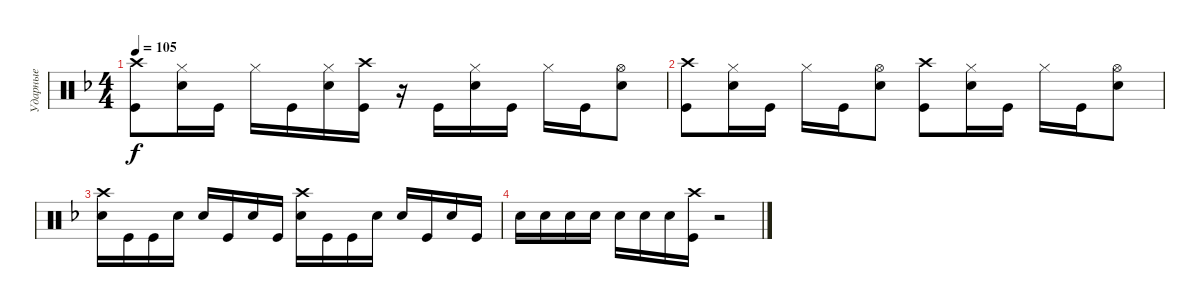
\track ("Ударные" "Ударные") {instrument percussion}
\staff {score}
\articulation defaults
\ts (4 4)
\tempo 105
\clef neutral
\ks dminor
("Kick (hit)" "Crash high (hit)").8{dy f} ("Snare (hit) 2" "Hi-Hat (closed)").16 "Kick (hit)".16 "Hi-Hat (closed)".16 "Kick (hit)".16 ("Snare (hit) 2" "Hi-Hat (closed)").16 ("Kick (hit)" "Crash high (hit)").16 r.16 "Kick (hit)".16 ("Snare (hit) 2" "Hi-Hat (closed)").16 "Kick (hit)".16 "Hi-Hat (closed)".16 "Kick (hit)".16 ("Snare (hit) 2" "Hi-Hat (open)").8 |
("Kick (hit)" "Crash high (hit)").8 ("Snare (hit) 2" "Hi-Hat (closed)").16 "Kick (hit)".16 "Hi-Hat (closed)".16 "Kick (hit)".16 ("Snare (hit) 2" "Hi-Hat (open)").8 ("Kick (hit)" "Crash high (hit)").8 ("Snare (hit) 2" "Hi-Hat (closed)").16 "Kick (hit)".16 "Hi-Hat (closed)".16 "Kick (hit)".16 ("Snare (hit) 2" "Hi-Hat (open)").8 |
("Crash high (hit)" "Snare (hit) 2").16 "Kick (hit)".16 "Kick (hit)".16 "Snare (hit) 2".16 "Snare (hit) 2".16 "Kick (hit)".16 "Snare (hit) 2".16 "Kick (hit)".16 ("Crash high (hit)" "Snare (hit) 2").16 "Kick (hit)".16 "Kick (hit)".16 "Snare (hit) 2".16 "Snare (hit) 2".16 "Kick (hit)".16 "Snare (hit) 2".16 "Kick (hit)".16 |
"Snare (hit) 2".16 "Snare (hit) 2".16 "Snare (hit) 2".16 "Snare (hit) 2".16 "Snare (hit) 2".16 "Snare (hit) 2".16 "Snare (hit) 2".16 ("Kick (hit)" "Crash high (hit)").16 r.2
